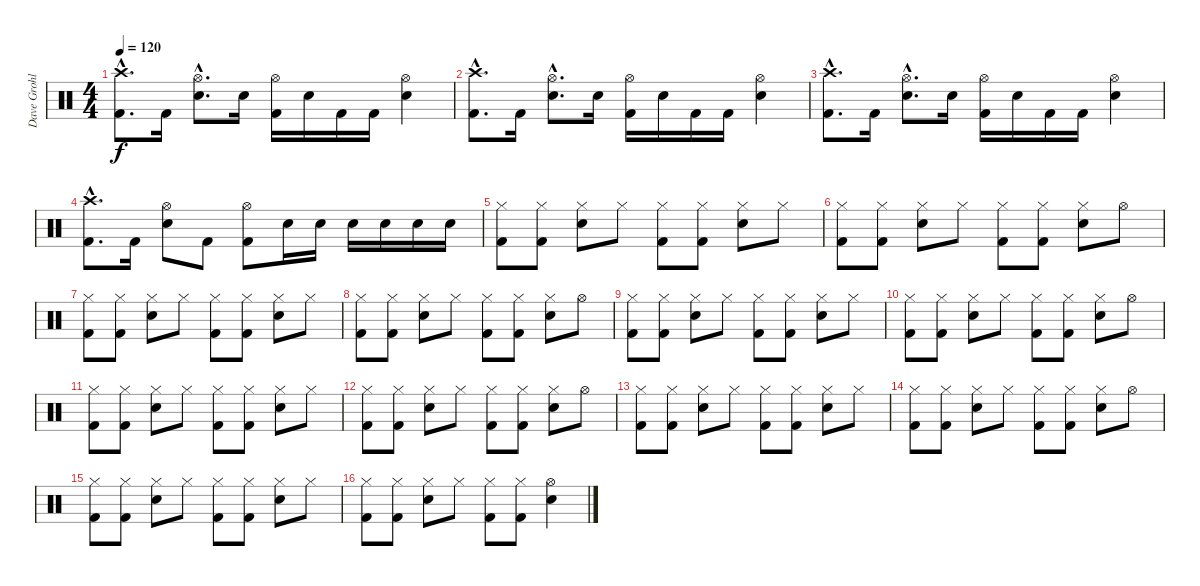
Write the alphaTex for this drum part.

\track ("Dave Grohl" "Dave Grohl") {instrument percussion}
\staff {score}
\articulation defaults
\ts (4 4)
\tempo 120
\clef neutral
\ks c
("Crash high (hit)"{hac} "Kick (hit) 2"{hac}).8{d dy f} "Kick (hit) 2".16 ("Hi-Hat (open)"{hac} "Snare (hit) 2"{hac}).8{d} "Snare (hit) 2".16 ("Hi-Hat (open)" "Kick (hit) 2").16 "Snare (hit) 2".16 "Kick (hit) 2".16 "Kick (hit) 2".16 ("Hi-Hat (open)" "Snare (hit) 2").4 |
("Crash high (hit)"{hac} "Kick (hit) 2"{hac}).8{d} "Kick (hit) 2".16 ("Hi-Hat (open)"{hac} "Snare (hit) 2"{hac}).8{d} "Snare (hit) 2".16 ("Hi-Hat (open)" "Kick (hit) 2").16 "Snare (hit) 2".16 "Kick (hit) 2".16 "Kick (hit) 2".16 ("Hi-Hat (open)" "Snare (hit) 2").4 |
("Crash high (hit)"{hac} "Kick (hit) 2"{hac}).8{d} "Kick (hit) 2".16 ("Hi-Hat (open)"{hac} "Snare (hit) 2"{hac}).8{d} "Snare (hit) 2".16 ("Hi-Hat (open)" "Kick (hit) 2").16 "Snare (hit) 2".16 "Kick (hit) 2".16 "Kick (hit) 2".16 ("Hi-Hat (open)" "Snare (hit) 2").4 |
("Crash high (hit)"{hac} "Kick (hit) 2"{hac}).8{d} "Kick (hit) 2".16 ("Hi-Hat (open)" "Snare (hit) 2").8 "Kick (hit) 2".8 ("Hi-Hat (open)" "Kick (hit) 2").8 "Snare (hit) 2".16 "Snare (hit) 2".16 "Snare (hit) 2".16 "Snare (hit) 2".16 "Snare (hit) 2".16 "Snare (hit) 2".16 |
("Hi-Hat (closed)" "Kick (hit) 2").8 ("Hi-Hat (closed)" "Kick (hit) 2").8 ("Hi-Hat (closed)" "Snare (hit) 2").8 "Hi-Hat (closed)".8 ("Hi-Hat (closed)" "Kick (hit) 2").8 ("Hi-Hat (closed)" "Kick (hit) 2").8 ("Hi-Hat (closed)" "Snare (hit) 2").8 "Hi-Hat (closed)".8 |
("Hi-Hat (closed)" "Kick (hit) 2").8 ("Hi-Hat (closed)" "Kick (hit) 2").8 ("Hi-Hat (closed)" "Snare (hit) 2").8 "Hi-Hat (closed)".8 ("Hi-Hat (closed)" "Kick (hit) 2").8 ("Hi-Hat (closed)" "Kick (hit) 2").8 ("Hi-Hat (closed)" "Snare (hit) 2").8 "Hi-Hat (open)".8 |
("Hi-Hat (closed)" "Kick (hit) 2").8 ("Hi-Hat (closed)" "Kick (hit) 2").8 ("Hi-Hat (closed)" "Snare (hit) 2").8 "Hi-Hat (closed)".8 ("Hi-Hat (closed)" "Kick (hit) 2").8 ("Hi-Hat (closed)" "Kick (hit) 2").8 ("Hi-Hat (closed)" "Snare (hit) 2").8 "Hi-Hat (closed)".8 |
("Hi-Hat (closed)" "Kick (hit) 2").8 ("Hi-Hat (closed)" "Kick (hit) 2").8 ("Hi-Hat (closed)" "Snare (hit) 2").8 "Hi-Hat (closed)".8 ("Hi-Hat (closed)" "Kick (hit) 2").8 ("Hi-Hat (closed)" "Kick (hit) 2").8 ("Hi-Hat (closed)" "Snare (hit) 2").8 "Hi-Hat (open)".8 |
("Hi-Hat (closed)" "Kick (hit) 2").8 ("Hi-Hat (closed)" "Kick (hit) 2").8 ("Hi-Hat (closed)" "Snare (hit) 2").8 "Hi-Hat (closed)".8 ("Hi-Hat (closed)" "Kick (hit) 2").8 ("Hi-Hat (closed)" "Kick (hit) 2").8 ("Hi-Hat (closed)" "Snare (hit) 2").8 "Hi-Hat (closed)".8 |
("Hi-Hat (closed)" "Kick (hit) 2").8 ("Hi-Hat (closed)" "Kick (hit) 2").8 ("Hi-Hat (closed)" "Snare (hit) 2").8 "Hi-Hat (closed)".8 ("Hi-Hat (closed)" "Kick (hit) 2").8 ("Hi-Hat (closed)" "Kick (hit) 2").8 ("Hi-Hat (closed)" "Snare (hit) 2").8 "Hi-Hat (open)".8 |
("Hi-Hat (closed)" "Kick (hit) 2").8 ("Hi-Hat (closed)" "Kick (hit) 2").8 ("Hi-Hat (closed)" "Snare (hit) 2").8 "Hi-Hat (closed)".8 ("Hi-Hat (closed)" "Kick (hit) 2").8 ("Hi-Hat (closed)" "Kick (hit) 2").8 ("Hi-Hat (closed)" "Snare (hit) 2").8 "Hi-Hat (closed)".8 |
("Hi-Hat (closed)" "Kick (hit) 2").8 ("Hi-Hat (closed)" "Kick (hit) 2").8 ("Hi-Hat (closed)" "Snare (hit) 2").8 "Hi-Hat (closed)".8 ("Hi-Hat (closed)" "Kick (hit) 2").8 ("Hi-Hat (closed)" "Kick (hit) 2").8 ("Hi-Hat (closed)" "Snare (hit) 2").8 "Hi-Hat (open)".8 |
("Hi-Hat (closed)" "Kick (hit) 2").8 ("Hi-Hat (closed)" "Kick (hit) 2").8 ("Hi-Hat (closed)" "Snare (hit) 2").8 "Hi-Hat (closed)".8 ("Hi-Hat (closed)" "Kick (hit) 2").8 ("Hi-Hat (closed)" "Kick (hit) 2").8 ("Hi-Hat (closed)" "Snare (hit) 2").8 "Hi-Hat (closed)".8 |
("Hi-Hat (closed)" "Kick (hit) 2").8 ("Hi-Hat (closed)" "Kick (hit) 2").8 ("Hi-Hat (closed)" "Snare (hit) 2").8 "Hi-Hat (closed)".8 ("Hi-Hat (closed)" "Kick (hit) 2").8 ("Hi-Hat (closed)" "Kick (hit) 2").8 ("Hi-Hat (closed)" "Snare (hit) 2").8 "Hi-Hat (open)".8 |
("Hi-Hat (closed)" "Kick (hit) 2").8 ("Hi-Hat (closed)" "Kick (hit) 2").8 ("Hi-Hat (closed)" "Snare (hit) 2").8 "Hi-Hat (closed)".8 ("Hi-Hat (closed)" "Kick (hit) 2").8 ("Hi-Hat (closed)" "Kick (hit) 2").8 ("Hi-Hat (closed)" "Snare (hit) 2").8 "Hi-Hat (closed)".8 |
("Hi-Hat (closed)" "Kick (hit) 2").8 ("Hi-Hat (closed)" "Kick (hit) 2").8 ("Hi-Hat (closed)" "Snare (hit) 2").8 "Hi-Hat (closed)".8 ("Hi-Hat (closed)" "Kick (hit) 2").8 ("Hi-Hat (closed)" "Kick (hit) 2").8 ("Hi-Hat (open)" "Snare (hit) 2").4
